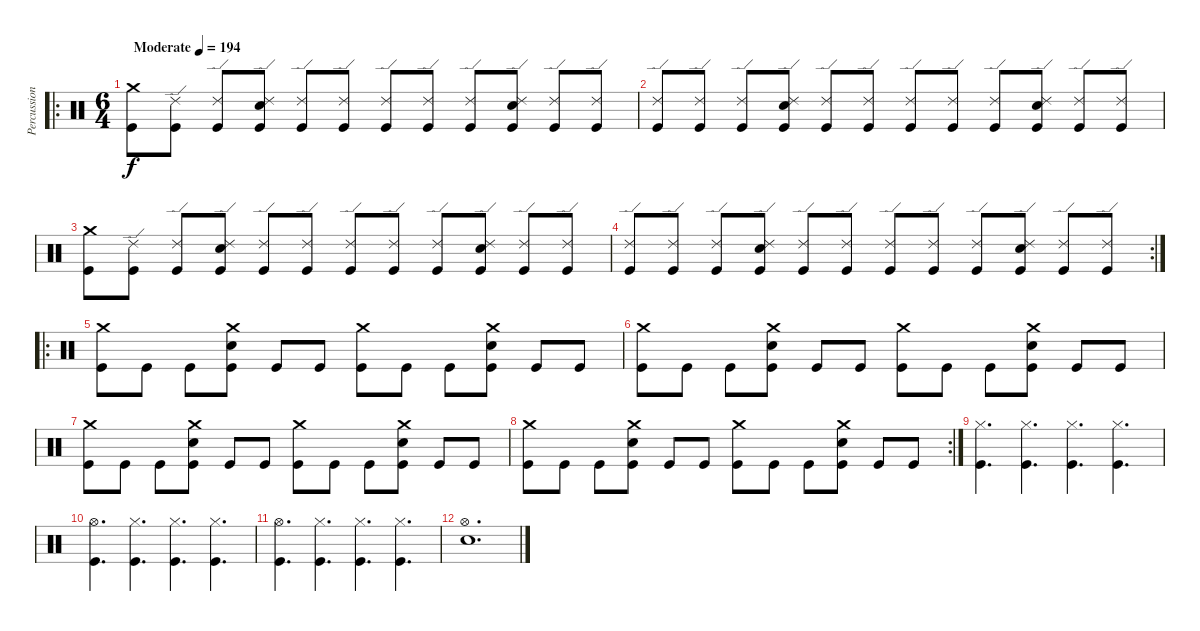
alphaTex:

\track ("Percussion" "Percussion") {instrument percussion}
\staff {score}
\articulation defaults
\ro
\ts (6 4)
\tempo (194 "Moderate")
\clef neutral
\ks c
("Crash medium (hit)" "Kick (hit)").8{dy f} ("Ride (edge) 2" "Kick (hit)").8 ("Ride (edge) 2" "Kick (hit)").8 ("Ride (edge) 2" "Electric Snare (hit)" "Kick (hit)").8 ("Ride (edge) 2" "Kick (hit)").8 ("Ride (edge) 2" "Kick (hit)").8 ("Ride (edge) 2" "Kick (hit)").8 ("Ride (edge) 2" "Kick (hit)").8 ("Ride (edge) 2" "Kick (hit)").8 ("Ride (edge) 2" "Electric Snare (hit)" "Kick (hit)").8 ("Ride (edge) 2" "Kick (hit)").8 ("Ride (edge) 2" "Kick (hit)").8 |
("Ride (edge) 2" "Kick (hit)").8 ("Ride (edge) 2" "Kick (hit)").8 ("Ride (edge) 2" "Kick (hit)").8 ("Ride (edge) 2" "Electric Snare (hit)" "Kick (hit)").8 ("Ride (edge) 2" "Kick (hit)").8 ("Ride (edge) 2" "Kick (hit)").8 ("Ride (edge) 2" "Kick (hit)").8 ("Ride (edge) 2" "Kick (hit)").8 ("Ride (edge) 2" "Kick (hit)").8 ("Ride (edge) 2" "Electric Snare (hit)" "Kick (hit)").8 ("Ride (edge) 2" "Kick (hit)").8 ("Ride (edge) 2" "Kick (hit)").8 |
("Crash medium (hit)" "Kick (hit)").8 ("Ride (edge) 2" "Kick (hit)").8 ("Ride (edge) 2" "Kick (hit)").8 ("Ride (edge) 2" "Electric Snare (hit)" "Kick (hit)").8 ("Ride (edge) 2" "Kick (hit)").8 ("Ride (edge) 2" "Kick (hit)").8 ("Ride (edge) 2" "Kick (hit)").8 ("Ride (edge) 2" "Kick (hit)").8 ("Ride (edge) 2" "Kick (hit)").8 ("Ride (edge) 2" "Electric Snare (hit)" "Kick (hit)").8 ("Ride (edge) 2" "Kick (hit)").8 ("Ride (edge) 2" "Kick (hit)").8 |
\rc 2
("Ride (edge) 2" "Kick (hit)").8 ("Ride (edge) 2" "Kick (hit)").8 ("Ride (edge) 2" "Kick (hit)").8 ("Ride (edge) 2" "Electric Snare (hit)" "Kick (hit)").8 ("Ride (edge) 2" "Kick (hit)").8 ("Ride (edge) 2" "Kick (hit)").8 ("Ride (edge) 2" "Kick (hit)").8 ("Ride (edge) 2" "Kick (hit)").8 ("Ride (edge) 2" "Kick (hit)").8 ("Ride (edge) 2" "Electric Snare (hit)" "Kick (hit)").8 ("Ride (edge) 2" "Kick (hit)").8 ("Ride (edge) 2" "Kick (hit)").8 |
\ro
("Crash medium (hit)" "Kick (hit)").8 "Kick (hit)".8 "Kick (hit)".8 ("Crash medium (hit)" "Electric Snare (hit)" "Kick (hit)").8 "Kick (hit)".8 "Kick (hit)".8 ("Crash medium (hit)" "Kick (hit)").8 "Kick (hit)".8 "Kick (hit)".8 ("Crash medium (hit)" "Electric Snare (hit)" "Kick (hit)").8 "Kick (hit)".8 "Kick (hit)".8 |
("Crash medium (hit)" "Kick (hit)").8 "Kick (hit)".8 "Kick (hit)".8 ("Crash medium (hit)" "Electric Snare (hit)" "Kick (hit)").8 "Kick (hit)".8 "Kick (hit)".8 ("Crash medium (hit)" "Kick (hit)").8 "Kick (hit)".8 "Kick (hit)".8 ("Crash medium (hit)" "Electric Snare (hit)" "Kick (hit)").8 "Kick (hit)".8 "Kick (hit)".8 |
("Crash medium (hit)" "Kick (hit)").8 "Kick (hit)".8 "Kick (hit)".8 ("Crash medium (hit)" "Electric Snare (hit)" "Kick (hit)").8 "Kick (hit)".8 "Kick (hit)".8 ("Crash medium (hit)" "Kick (hit)").8 "Kick (hit)".8 "Kick (hit)".8 ("Crash medium (hit)" "Electric Snare (hit)" "Kick (hit)").8 "Kick (hit)".8 "Kick (hit)".8 |
\rc 2
("Crash medium (hit)" "Kick (hit)").8 "Kick (hit)".8 "Kick (hit)".8 ("Crash medium (hit)" "Electric Snare (hit)" "Kick (hit)").8 "Kick (hit)".8 "Kick (hit)".8 ("Crash medium (hit)" "Kick (hit)").8 "Kick (hit)".8 "Kick (hit)".8 ("Crash medium (hit)" "Electric Snare (hit)" "Kick (hit)").8 "Kick (hit)".8 "Kick (hit)".8 |
("Hi-Hat (closed)" "Kick (hit)").4{d} ("Hi-Hat (closed)" "Kick (hit)").4{d} ("Hi-Hat (closed)" "Kick (hit)").4{d} ("Hi-Hat (closed)" "Kick (hit)").4{d} |
("Hi-Hat (open)" "Kick (hit)").4{d} ("Hi-Hat (closed)" "Kick (hit)").4{d} ("Hi-Hat (closed)" "Kick (hit)").4{d} ("Hi-Hat (closed)" "Kick (hit)").4{d} |
("Hi-Hat (open)" "Kick (hit)").4{d} ("Hi-Hat (closed)" "Kick (hit)").4{d} ("Hi-Hat (closed)" "Kick (hit)").4{d} ("Hi-Hat (closed)" "Kick (hit)").4{d} |
("Hi-Hat (open)" "Electric Snare (hit)").1{d}
